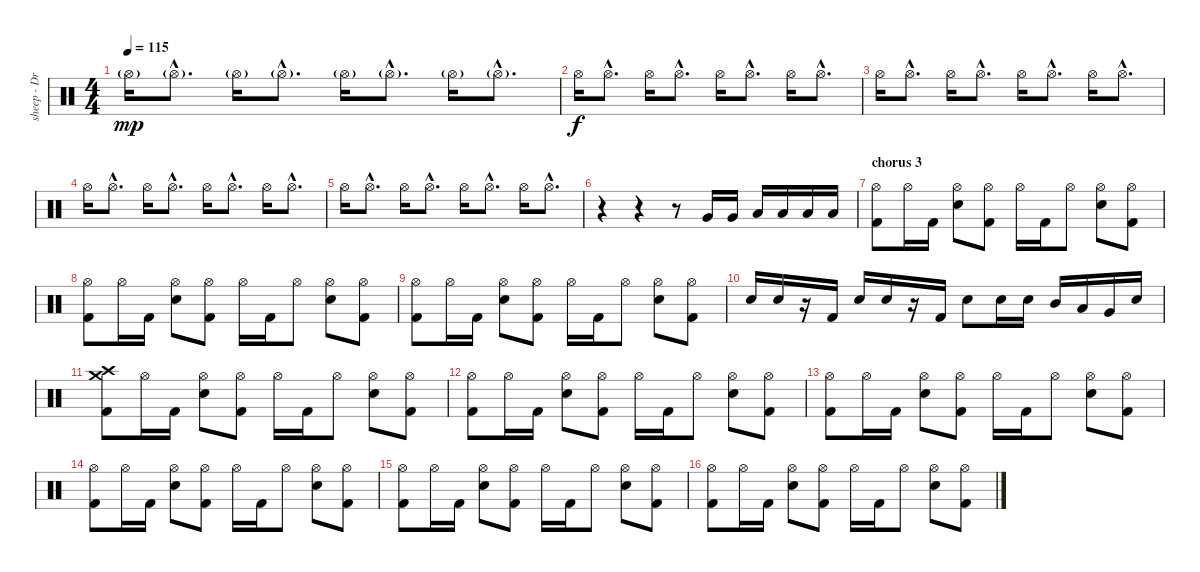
\track ("sheep - Drum track (guide)" "sheep - Dr") {instrument percussion}
\staff {score}
\articulation defaults
\ts (4 4)
\tempo 115
\clef neutral
\ks c "Hi-Hat (open)"{g}.16{dy mp} "Hi-Hat (open)"{g hac}.8{d} "Hi-Hat (open)"{g}.16 "Hi-Hat (open)"{g hac}.8{d} "Hi-Hat (open)"{g}.16 "Hi-Hat (open)"{g hac}.8{d} "Hi-Hat (open)"{g}.16 "Hi-Hat (open)"{g hac}.8{d}
|
"Hi-Hat (open)".16{dy f} "Hi-Hat (open)"{hac}.8{d} "Hi-Hat (open)".16 "Hi-Hat (open)"{hac}.8{d} "Hi-Hat (open)".16 "Hi-Hat (open)"{hac}.8{d} "Hi-Hat (open)".16 "Hi-Hat (open)"{hac}.8{d} |
"Hi-Hat (open)".16 "Hi-Hat (open)"{hac}.8{d} "Hi-Hat (open)".16 "Hi-Hat (open)"{hac}.8{d} "Hi-Hat (open)".16 "Hi-Hat (open)"{hac}.8{d} "Hi-Hat (open)".16 "Hi-Hat (open)"{hac}.8{d} |
"Hi-Hat (open)".16 "Hi-Hat (open)"{hac}.8{d} "Hi-Hat (open)".16 "Hi-Hat (open)"{hac}.8{d} "Hi-Hat (open)".16 "Hi-Hat (open)"{hac}.8{d} "Hi-Hat (open)".16 "Hi-Hat (open)"{hac}.8{d} |
"Hi-Hat (open)".16 "Hi-Hat (open)"{hac}.8{d} "Hi-Hat (open)".16 "Hi-Hat (open)"{hac}.8{d} "Hi-Hat (open)".16 "Hi-Hat (open)"{hac}.8{d} "Hi-Hat (open)".16 "Hi-Hat (open)"{hac}.8{d} |
r.4 r.4 r.8 "Very Low Tom (hit)".16 "Very Low Tom (hit)".16 "Low Tom (hit)".16 "Low Tom (hit)".16 "Low Floor Tom (hit)".16 "Low Floor Tom (hit)".16 |
\section ("" "chorus 3")
("Hi-Hat (open)" "Kick (hit) 2").8 "Hi-Hat (open)".16 "Kick (hit) 2".16 ("Hi-Hat (open)" "Electric Snare (hit)").8 ("Hi-Hat (open)" "Kick (hit) 2").8 "Hi-Hat (open)".16 "Kick (hit) 2".16 "Hi-Hat (open)".8 ("Hi-Hat (open)" "Electric Snare (hit)").8 ("Hi-Hat (open)" "Kick (hit) 2").8 |
("Hi-Hat (open)" "Kick (hit) 2").8 "Hi-Hat (open)".16 "Kick (hit) 2".16 ("Hi-Hat (open)" "Electric Snare (hit)").8 ("Hi-Hat (open)" "Kick (hit) 2").8 "Hi-Hat (open)".16 "Kick (hit) 2".16 "Hi-Hat (open)".8 ("Hi-Hat (open)" "Electric Snare (hit)").8 ("Hi-Hat (open)" "Kick (hit) 2").8 |
("Hi-Hat (open)" "Kick (hit) 2").8 "Hi-Hat (open)".16 "Kick (hit) 2".16 ("Hi-Hat (open)" "Electric Snare (hit)").8 ("Hi-Hat (open)" "Kick (hit) 2").8 "Hi-Hat (open)".16 "Kick (hit) 2".16 "Hi-Hat (open)".8 ("Hi-Hat (open)" "Electric Snare (hit)").8 ("Hi-Hat (open)" "Kick (hit) 2").8 |
"Electric Snare (hit)".16 "Electric Snare (hit)".16 r.16 "Kick (hit) 2".16 "Electric Snare (hit)".16 "Electric Snare (hit)".16 r.16 "Kick (hit) 2".16 "Electric Snare (hit)".8 "Electric Snare (hit)".16 "Electric Snare (hit)".16 "Mid Tom (hit)".16 "Low Tom (hit)".16 "Very Low Tom (hit)".16 "Electric Snare (hit)".16 |
("Crash medium (hit)" "Crash high (hit)" "Kick (hit) 2").8 "Hi-Hat (open)".16 "Kick (hit) 2".16 ("Hi-Hat (open)" "Electric Snare (hit)").8 ("Hi-Hat (open)" "Kick (hit) 2").8 "Hi-Hat (open)".16 "Kick (hit) 2".16 "Hi-Hat (open)".8 ("Hi-Hat (open)" "Electric Snare (hit)").8 ("Hi-Hat (open)" "Kick (hit) 2").8 |
("Hi-Hat (open)" "Kick (hit) 2").8 "Hi-Hat (open)".16 "Kick (hit) 2".16 ("Hi-Hat (open)" "Electric Snare (hit)").8 ("Hi-Hat (open)" "Kick (hit) 2").8 "Hi-Hat (open)".16 "Kick (hit) 2".16 "Hi-Hat (open)".8 ("Hi-Hat (open)" "Electric Snare (hit)").8 ("Hi-Hat (open)" "Kick (hit) 2").8 |
("Hi-Hat (open)" "Kick (hit) 2").8 "Hi-Hat (open)".16 "Kick (hit) 2".16 ("Hi-Hat (open)" "Electric Snare (hit)").8 ("Hi-Hat (open)" "Kick (hit) 2").8 "Hi-Hat (open)".16 "Kick (hit) 2".16 "Hi-Hat (open)".8 ("Hi-Hat (open)" "Electric Snare (hit)").8 ("Hi-Hat (open)" "Kick (hit) 2").8 |
("Hi-Hat (open)" "Kick (hit) 2").8 "Hi-Hat (open)".16 "Kick (hit) 2".16 ("Hi-Hat (open)" "Electric Snare (hit)").8 ("Hi-Hat (open)" "Kick (hit) 2").8 "Hi-Hat (open)".16 "Kick (hit) 2".16 "Hi-Hat (open)".8 ("Hi-Hat (open)" "Electric Snare (hit)").8 ("Hi-Hat (open)" "Kick (hit) 2").8 |
("Hi-Hat (open)" "Kick (hit) 2").8 "Hi-Hat (open)".16 "Kick (hit) 2".16 ("Hi-Hat (open)" "Electric Snare (hit)").8 ("Hi-Hat (open)" "Kick (hit) 2").8 "Hi-Hat (open)".16 "Kick (hit) 2".16 "Hi-Hat (open)".8 ("Hi-Hat (open)" "Electric Snare (hit)").8 ("Hi-Hat (open)" "Kick (hit) 2").8 |
("Hi-Hat (open)" "Kick (hit) 2").8 "Hi-Hat (open)".16 "Kick (hit) 2".16 ("Hi-Hat (open)" "Electric Snare (hit)").8 ("Hi-Hat (open)" "Kick (hit) 2").8 "Hi-Hat (open)".16 "Kick (hit) 2".16 "Hi-Hat (open)".8 ("Hi-Hat (open)" "Electric Snare (hit)").8 ("Hi-Hat (open)" "Kick (hit) 2").8
